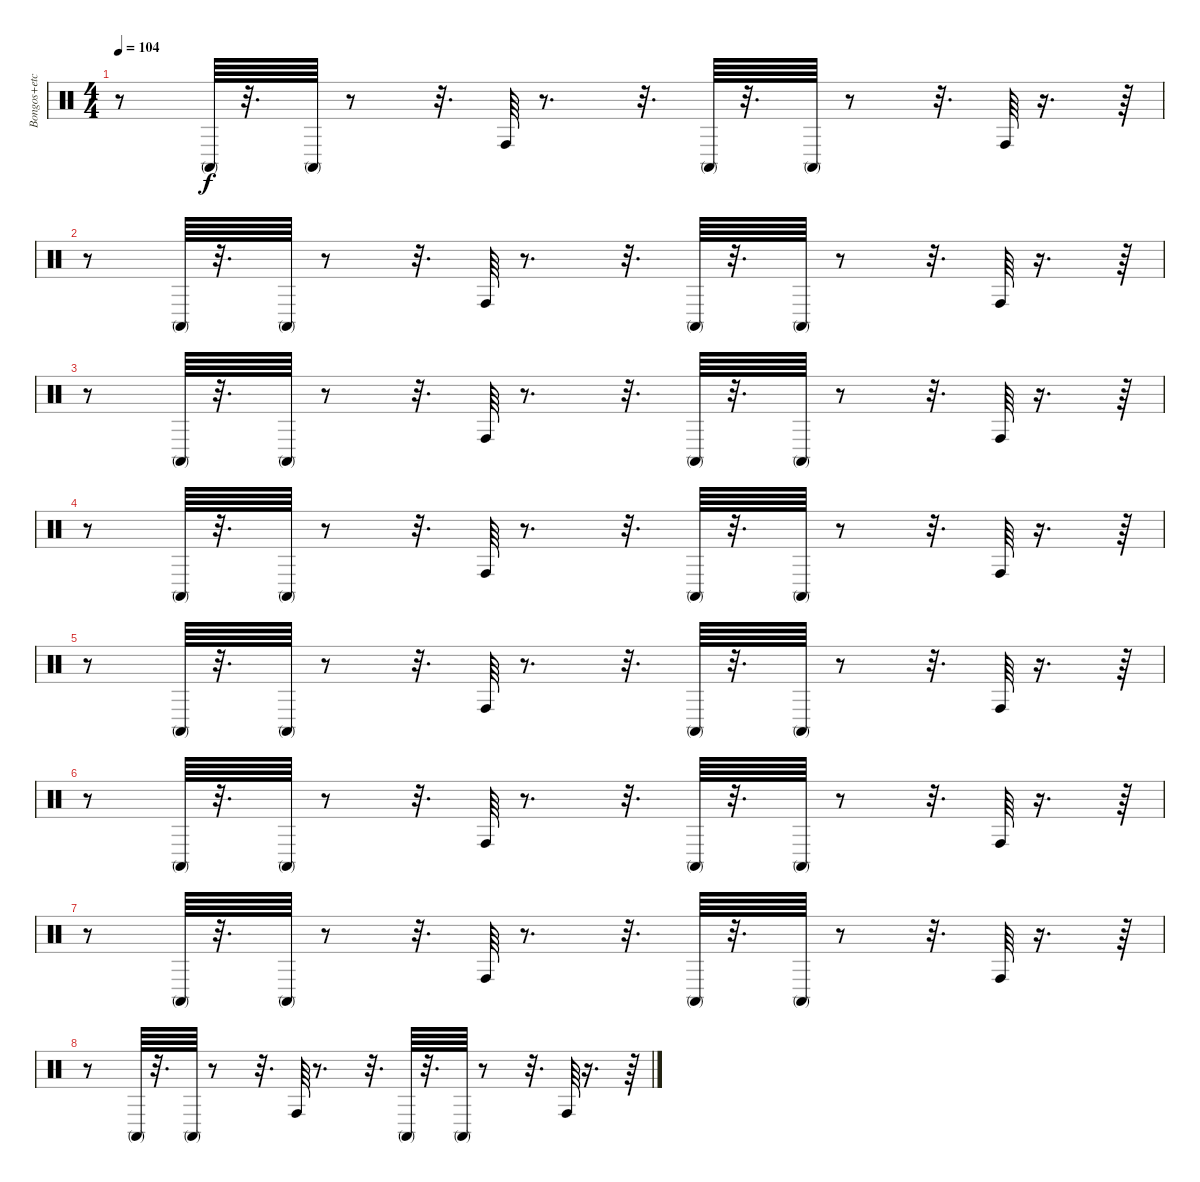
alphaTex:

\track ("Bongos+etc" "Bongos+etc") {instrument percussion}
\staff {score}
\articulation defaults
\ts (4 4)
\tempo 104
\clef neutral
\ks c
r.8{dy f} "Conga high (mute)".64 r.32{d} "Conga high (mute)".64 r.8 r.32{d} "Conga high (hit)".64 r.8{d} r.32{d} "Conga high (mute)".64 r.32{d} "Conga high (mute)".64 r.8 r.32{d} "Conga high (hit)".64 r.16{d} r.64 |
r.8 "Conga high (mute)".64 r.32{d} "Conga high (mute)".64 r.8 r.32{d} "Conga high (hit)".64 r.8{d} r.32{d} "Conga high (mute)".64 r.32{d} "Conga high (mute)".64 r.8 r.32{d} "Conga high (hit)".64 r.16{d} r.64 |
r.8 "Conga high (mute)".64 r.32{d} "Conga high (mute)".64 r.8 r.32{d} "Conga high (hit)".64 r.8{d} r.32{d} "Conga high (mute)".64 r.32{d} "Conga high (mute)".64 r.8 r.32{d} "Conga high (hit)".64 r.16{d} r.64 |
r.8 "Conga high (mute)".64 r.32{d} "Conga high (mute)".64 r.8 r.32{d} "Conga high (hit)".64 r.8{d} r.32{d} "Conga high (mute)".64 r.32{d} "Conga high (mute)".64 r.8 r.32{d} "Conga high (hit)".64 r.16{d} r.64 |
r.8 "Conga high (mute)".64 r.32{d} "Conga high (mute)".64 r.8 r.32{d} "Conga high (hit)".64 r.8{d} r.32{d} "Conga high (mute)".64 r.32{d} "Conga high (mute)".64 r.8 r.32{d} "Conga high (hit)".64 r.16{d} r.64 |
r.8 "Conga high (mute)".64 r.32{d} "Conga high (mute)".64 r.8 r.32{d} "Conga high (hit)".64 r.8{d} r.32{d} "Conga high (mute)".64 r.32{d} "Conga high (mute)".64 r.8 r.32{d} "Conga high (hit)".64 r.16{d} r.64 |
r.8 "Conga high (mute)".64 r.32{d} "Conga high (mute)".64 r.8 r.32{d} "Conga high (hit)".64 r.8{d} r.32{d} "Conga high (mute)".64 r.32{d} "Conga high (mute)".64 r.8 r.32{d} "Conga high (hit)".64 r.16{d} r.64 |
r.8 "Conga high (mute)".64 r.32{d} "Conga high (mute)".64 r.8 r.32{d} "Conga high (hit)".64 r.8{d} r.32{d} "Conga high (mute)".64 r.32{d} "Conga high (mute)".64 r.8 r.32{d} "Conga high (hit)".64 r.16{d} r.64
